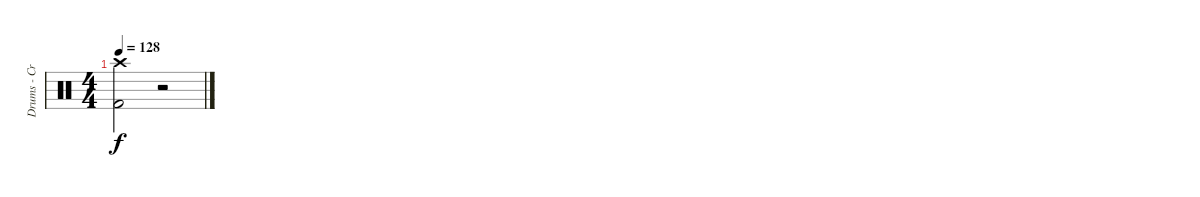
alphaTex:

\track ("Drums - Cris Knapp" "Drums - Cr") {instrument percussion}
\staff {score}
\articulation defaults
\ts (4 4)
\tempo 128
\clef neutral
\ks c
("Kick (hit) 2" "Crash high (hit)").2{dy f} r.2
